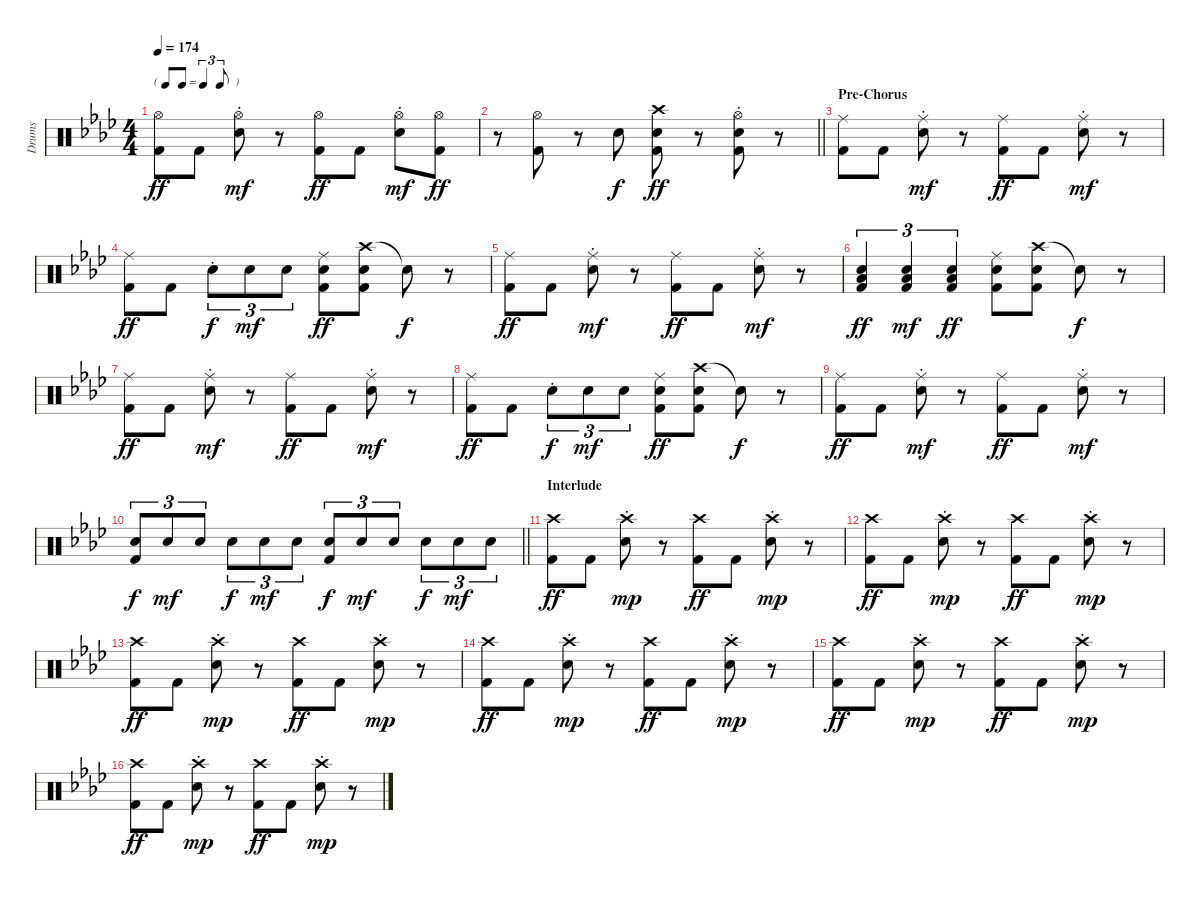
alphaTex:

\track ("Drums" "Drums") {instrument percussion}
\staff {score}
\articulation defaults
\ts (4 4)
\tf triplet8th
\tempo 174
\clef neutral
\ks ab
("Hi-Hat (open)" "Kick (hit) 2").8{dy ff} "Kick (hit) 2".8 ("Hi-Hat (open)" "Snare (hit) 2"{st}).8{dy mf} r.8 ("Hi-Hat (open)" "Kick (hit) 2").8{dy ff} "Kick (hit) 2".8 ("Hi-Hat (open)" "Snare (hit) 2"{st}).8{dy mf} ("Hi-Hat (open)" "Kick (hit) 2").8{dy ff} |
\barLineRight lightlight
r.8 ("Hi-Hat (open)" "Kick (hit) 2").8 r.8 "Snare (hit) 2".8{dy f} ("Crash high (hit)" "Snare (hit) 2" "Kick (hit) 2").8{dy ff} r.8 ("Hi-Hat (open)" "Snare (hit) 2"{st} "Kick (hit) 2").8 r.8 |
\section ("" "Pre-Chorus")
("Ride (middle)" "Kick (hit) 2").8 "Kick (hit) 2".8 ("Ride (middle)" "Snare (hit) 2"{st}).8{dy mf} r.8 ("Ride (middle)" "Kick (hit) 2").8{dy ff} "Kick (hit) 2".8 ("Ride (middle)" "Snare (hit) 2"{st}).8{dy mf} r.8 |
("Ride (middle)" "Kick (hit) 2").8{dy ff} "Kick (hit) 2".8 "Snare (hit) 2"{st}.8{tu (3 2) dy f} "Snare (hit) 2".8{tu (3 2) dy mf} "Snare (hit) 2".8{tu (3 2)} ("Ride (middle)" "Snare (hit) 2" "Kick (hit) 2").8{dy ff} ("Crash high (hit)" "Snare (hit) 2" "Kick (hit) 2").8 "Snare (hit)"{t}.8{dy f} r.8 |
("Ride (middle)" "Kick (hit) 2").8{dy ff} "Kick (hit) 2".8 ("Ride (middle)" "Snare (hit) 2"{st}).8{dy mf} r.8 ("Ride (middle)" "Kick (hit) 2").8{dy ff} "Kick (hit) 2".8 ("Ride (middle)" "Snare (hit) 2"{st}).8{dy mf} r.8 |
("Low Tom (hit)" "Snare (hit) 2" "Kick (hit) 2").4{tu (3 2) dy ff} ("Low Tom (hit)" "Snare (hit) 2" "Kick (hit) 2").4{tu (3 2) dy mf} ("Low Tom (hit)" "Snare (hit) 2" "Kick (hit) 2").4{tu (3 2) dy ff} ("Ride (middle)" "Snare (hit) 2" "Kick (hit) 2").8 ("Crash high (hit)" "Snare (hit) 2" "Kick (hit) 2").8 "Snare (hit)"{t}.8{dy f} r.8 |
("Ride (middle)" "Kick (hit) 2").8{dy ff} "Kick (hit) 2".8 ("Ride (middle)" "Snare (hit) 2"{st}).8{dy mf} r.8 ("Ride (middle)" "Kick (hit) 2").8{dy ff} "Kick (hit) 2".8 ("Ride (middle)" "Snare (hit) 2"{st}).8{dy mf} r.8 |
("Ride (middle)" "Kick (hit) 2").8{dy ff} "Kick (hit) 2".8 "Snare (hit) 2"{st}.8{tu (3 2) dy f} "Snare (hit) 2".8{tu (3 2) dy mf} "Snare (hit) 2".8{tu (3 2)} ("Ride (middle)" "Snare (hit) 2" "Kick (hit) 2").8{dy ff} ("Crash high (hit)" "Snare (hit) 2" "Kick (hit) 2").8 "Snare (hit)"{t}.8{dy f} r.8 |
("Ride (middle)" "Kick (hit) 2").8{dy ff} "Kick (hit) 2".8 ("Ride (middle)" "Snare (hit) 2"{st}).8{dy mf} r.8 ("Ride (middle)" "Kick (hit) 2").8{dy ff} "Kick (hit) 2".8 ("Ride (middle)" "Snare (hit) 2"{st}).8{dy mf} r.8 |
\barLineRight lightlight
("Snare (hit) 2" "Kick (hit) 2").8{tu (3 2) dy f} "Snare (hit) 2".8{tu (3 2) dy mf} "Snare (hit) 2".8{tu (3 2)} "Snare (hit) 2".8{tu (3 2) dy f} "Snare (hit) 2".8{tu (3 2) dy mf} "Snare (hit) 2".8{tu (3 2)} ("Snare (hit) 2" "Kick (hit) 2").8{tu (3 2) dy f} "Snare (hit) 2".8{tu (3 2) dy mf} "Snare (hit) 2".8{tu (3 2)} "Snare (hit) 2".8{tu (3 2) dy f} "Snare (hit) 2".8{tu (3 2) dy mf} "Snare (hit) 2".8{tu (3 2)} |
\section ("" "Interlude")
("Crash high (hit)" "Kick (hit) 2").8{dy ff} "Kick (hit) 2".8 ("Crash high (hit)" "Snare (hit) 2"{st}).8{dy mp} r.8 ("Crash high (hit)" "Kick (hit) 2").8{dy ff} "Kick (hit) 2".8 ("Crash high (hit)" "Snare (hit) 2"{st}).8{dy mp} r.8 |
("Crash high (hit)" "Kick (hit) 2").8{dy ff} "Kick (hit) 2".8 ("Crash high (hit)" "Snare (hit) 2"{st}).8{dy mp} r.8 ("Crash high (hit)" "Kick (hit) 2").8{dy ff} "Kick (hit) 2".8 ("Crash high (hit)" "Snare (hit) 2"{st}).8{dy mp} r.8 |
("Crash high (hit)" "Kick (hit) 2").8{dy ff} "Kick (hit) 2".8 ("Crash high (hit)" "Snare (hit) 2"{st}).8{dy mp} r.8 ("Crash high (hit)" "Kick (hit) 2").8{dy ff} "Kick (hit) 2".8 ("Crash high (hit)" "Snare (hit) 2"{st}).8{dy mp} r.8 |
("Crash high (hit)" "Kick (hit) 2").8{dy ff} "Kick (hit) 2".8 ("Crash high (hit)" "Snare (hit) 2"{st}).8{dy mp} r.8 ("Crash high (hit)" "Kick (hit) 2").8{dy ff} "Kick (hit) 2".8 ("Crash high (hit)" "Snare (hit) 2"{st}).8{dy mp} r.8 |
("Crash high (hit)" "Kick (hit) 2").8{dy ff} "Kick (hit) 2".8 ("Crash high (hit)" "Snare (hit) 2"{st}).8{dy mp} r.8 ("Crash high (hit)" "Kick (hit) 2").8{dy ff} "Kick (hit) 2".8 ("Crash high (hit)" "Snare (hit) 2"{st}).8{dy mp} r.8 |
("Crash high (hit)" "Kick (hit) 2").8{dy ff} "Kick (hit) 2".8 ("Crash high (hit)" "Snare (hit) 2"{st}).8{dy mp} r.8 ("Crash high (hit)" "Kick (hit) 2").8{dy ff} "Kick (hit) 2".8 ("Crash high (hit)" "Snare (hit) 2"{st}).8{dy mp} r.8
